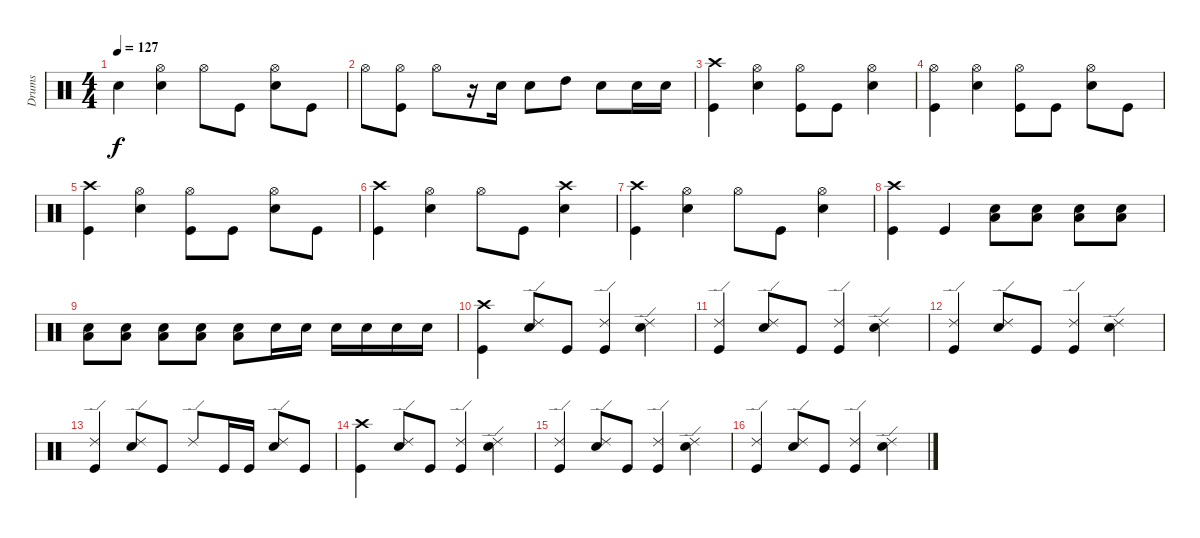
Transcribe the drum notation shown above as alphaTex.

\track ("Drums" "Drums") {instrument percussion}
\staff {score}
\articulation defaults
\ts (4 4)
\tempo 127
\clef neutral
\ks c "Snare (hit)"{t}.4{dy f}
("Hi-Hat (open)" "Snare (hit) 2").4 "Hi-Hat (open)".8 "Kick (hit)".8 ("Hi-Hat (open)" "Snare (hit) 2").8 "Kick (hit)".8 |
"Hi-Hat (open)".8 ("Hi-Hat (open)" "Kick (hit)").8 "Hi-Hat (open)".8 r.16 "Snare (hit) 2".16 "Snare (hit) 2".8 "High Tom (hit)".8 "Snare (hit) 2".8 "Snare (hit) 2".16 "Snare (hit) 2".16 |
("Crash high (hit)" "Kick (hit)").4 ("Hi-Hat (open)" "Snare (hit) 2").4 ("Hi-Hat (open)" "Kick (hit)").8 "Kick (hit)".8 ("Hi-Hat (open)" "Snare (hit) 2").4 |
("Hi-Hat (open)" "Kick (hit)").4 ("Hi-Hat (open)" "Snare (hit) 2").4 ("Hi-Hat (open)" "Kick (hit)").8 "Kick (hit)".8 ("Hi-Hat (open)" "Snare (hit) 2").8 "Kick (hit)".8 |
("Crash high (hit)" "Kick (hit)").4 ("Hi-Hat (open)" "Snare (hit) 2").4 ("Hi-Hat (open)" "Kick (hit)").8 "Kick (hit)".8 ("Hi-Hat (open)" "Snare (hit) 2").8 "Kick (hit)".8 |
("Crash high (hit)" "Kick (hit)").4 ("Hi-Hat (open)" "Snare (hit) 2").4 "Hi-Hat (open)".8 "Kick (hit)".8 ("Crash high (hit)" "Snare (hit) 2").4 |
("Crash high (hit)" "Kick (hit)").4 ("Hi-Hat (open)" "Snare (hit) 2").4 "Hi-Hat (open)".8 "Kick (hit)".8 ("Hi-Hat (open)" "Snare (hit) 2").4 |
("Crash high (hit)" "Kick (hit)").4 "Kick (hit)".4 ("Low Tom (hit)" "Snare (hit) 2").8 ("Low Tom (hit)" "Snare (hit) 2").8 ("Low Tom (hit)" "Snare (hit) 2").8 ("Low Tom (hit)" "Snare (hit) 2").8 |
("Low Tom (hit)" "Snare (hit) 2").8 ("Low Tom (hit)" "Snare (hit) 2").8 ("Low Tom (hit)" "Snare (hit) 2").8 ("Low Tom (hit)" "Snare (hit) 2").8 ("Low Tom (hit)" "Snare (hit) 2").8 "Snare (hit) 2".16 "Snare (hit) 2".16 "Snare (hit) 2".16 "Snare (hit) 2".16 "Snare (hit) 2".16 "Snare (hit) 2".16 |
("Crash high (hit)" "Kick (hit)").4 ("Ride (edge) 2" "Snare (hit) 2").8 "Kick (hit)".8 ("Ride (edge) 2" "Kick (hit)").4 ("Ride (edge) 2" "Snare (hit) 2").4 |
("Ride (edge) 2" "Kick (hit)").4 ("Ride (edge) 2" "Snare (hit) 2").8 "Kick (hit)".8 ("Ride (edge) 2" "Kick (hit)").4 ("Ride (edge) 2" "Snare (hit) 2").4 |
("Ride (edge) 2" "Kick (hit)").4 ("Ride (edge) 2" "Snare (hit) 2").8 "Kick (hit)".8 ("Ride (edge) 2" "Kick (hit)").4 ("Ride (edge) 2" "Snare (hit) 2").4 |
("Ride (edge) 2" "Kick (hit)").4 ("Ride (edge) 2" "Snare (hit) 2").8 "Kick (hit)".8 "Ride (edge) 2".8 "Kick (hit)".16 "Kick (hit)".16 ("Ride (edge) 2" "Snare (hit) 2").8 "Kick (hit)".8 |
("Crash high (hit)" "Kick (hit)").4 ("Ride (edge) 2" "Snare (hit) 2").8 "Kick (hit)".8 ("Ride (edge) 2" "Kick (hit)").4 ("Ride (edge) 2" "Snare (hit) 2").4 |
("Ride (edge) 2" "Kick (hit)").4 ("Ride (edge) 2" "Snare (hit) 2").8 "Kick (hit)".8 ("Ride (edge) 2" "Kick (hit)").4 ("Ride (edge) 2" "Snare (hit) 2").4 |
("Ride (edge) 2" "Kick (hit)").4 ("Ride (edge) 2" "Snare (hit) 2").8 "Kick (hit)".8 ("Ride (edge) 2" "Kick (hit)").4 ("Ride (edge) 2" "Snare (hit) 2").4
